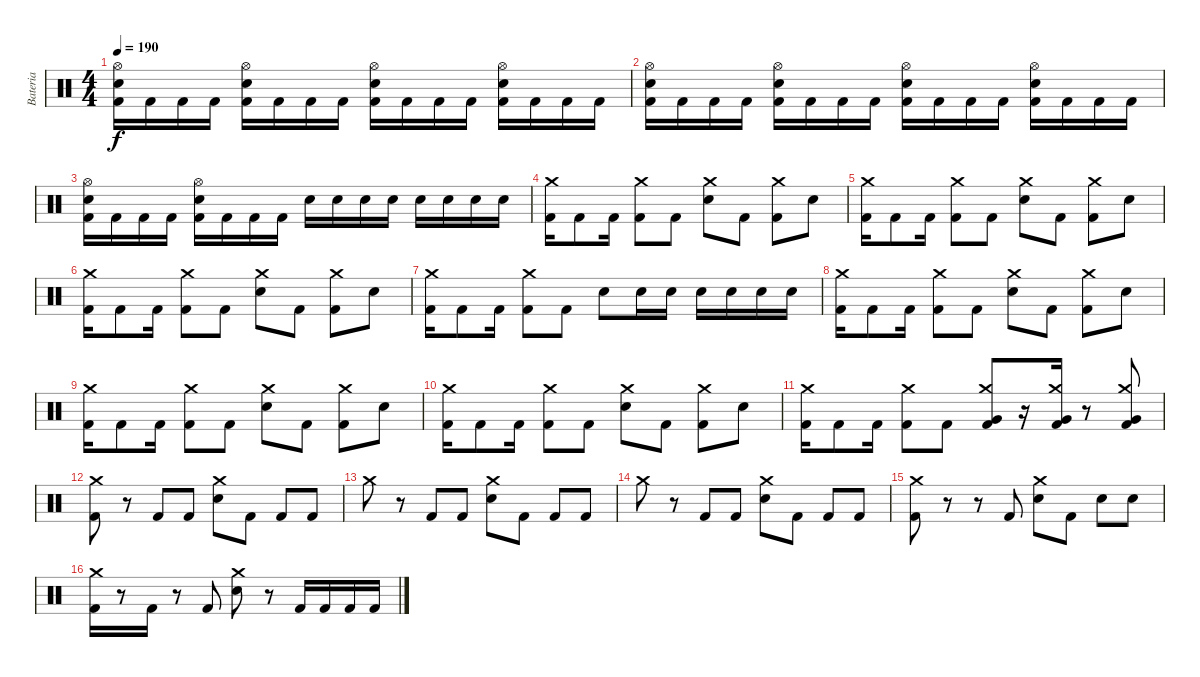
\track ("Bateria" "Bateria") {instrument percussion}
\staff {score}
\articulation defaults
\ts (4 4)
\tempo 190
\clef neutral
\ks c
("Hi-Hat (open)" "Electric Snare (hit)" "Kick (hit) 2").16{dy f} "Kick (hit) 2".16 "Kick (hit) 2".16 "Kick (hit) 2".16 ("Hi-Hat (open)" "Electric Snare (hit)" "Kick (hit) 2").16 "Kick (hit) 2".16 "Kick (hit) 2".16 "Kick (hit) 2".16 ("Hi-Hat (open)" "Electric Snare (hit)" "Kick (hit) 2").16 "Kick (hit) 2".16 "Kick (hit) 2".16 "Kick (hit) 2".16 ("Hi-Hat (open)" "Electric Snare (hit)" "Kick (hit) 2").16 "Kick (hit) 2".16 "Kick (hit) 2".16 "Kick (hit) 2".16 |
("Hi-Hat (open)" "Electric Snare (hit)" "Kick (hit) 2").16 "Kick (hit) 2".16 "Kick (hit) 2".16 "Kick (hit) 2".16 ("Hi-Hat (open)" "Electric Snare (hit)" "Kick (hit) 2").16 "Kick (hit) 2".16 "Kick (hit) 2".16 "Kick (hit) 2".16 ("Hi-Hat (open)" "Electric Snare (hit)" "Kick (hit) 2").16 "Kick (hit) 2".16 "Kick (hit) 2".16 "Kick (hit) 2".16 ("Hi-Hat (open)" "Electric Snare (hit)" "Kick (hit) 2").16 "Kick (hit) 2".16 "Kick (hit) 2".16 "Kick (hit) 2".16 |
("Hi-Hat (open)" "Electric Snare (hit)" "Kick (hit) 2").16 "Kick (hit) 2".16 "Kick (hit) 2".16 "Kick (hit) 2".16 ("Hi-Hat (open)" "Electric Snare (hit)" "Kick (hit) 2").16 "Kick (hit) 2".16 "Kick (hit) 2".16 "Kick (hit) 2".16 "Electric Snare (hit)".16 "Electric Snare (hit)".16 "Electric Snare (hit)".16 "Electric Snare (hit)".16 "Electric Snare (hit)".16 "Electric Snare (hit)".16 "Electric Snare (hit)".16 "Electric Snare (hit)".16 |
("Crash medium (hit)" "Kick (hit) 2").16 "Kick (hit) 2".8 "Kick (hit) 2".16 ("Crash medium (hit)" "Kick (hit) 2").8 "Kick (hit) 2".8 ("Crash medium (hit)" "Electric Snare (hit)").8 "Kick (hit) 2".8 ("Crash medium (hit)" "Kick (hit) 2").8 "Electric Snare (hit)".8 |
("Crash medium (hit)" "Kick (hit) 2").16 "Kick (hit) 2".8 "Kick (hit) 2".16 ("Crash medium (hit)" "Kick (hit) 2").8 "Kick (hit) 2".8 ("Crash medium (hit)" "Electric Snare (hit)").8 "Kick (hit) 2".8 ("Crash medium (hit)" "Kick (hit) 2").8 "Electric Snare (hit)".8 |
("Crash medium (hit)" "Kick (hit) 2").16 "Kick (hit) 2".8 "Kick (hit) 2".16 ("Crash medium (hit)" "Kick (hit) 2").8 "Kick (hit) 2".8 ("Crash medium (hit)" "Electric Snare (hit)").8 "Kick (hit) 2".8 ("Crash medium (hit)" "Kick (hit) 2").8 "Electric Snare (hit)".8 |
("Crash medium (hit)" "Kick (hit) 2").16 "Kick (hit) 2".8 "Kick (hit) 2".16 ("Crash medium (hit)" "Kick (hit) 2").8 "Kick (hit) 2".8 "Electric Snare (hit)".8 "Electric Snare (hit)".16 "Electric Snare (hit)".16 "Electric Snare (hit)".16 "Electric Snare (hit)".16 "Electric Snare (hit)".16 "Electric Snare (hit)".16 |
("Crash medium (hit)" "Kick (hit) 2").16 "Kick (hit) 2".8 "Kick (hit) 2".16 ("Crash medium (hit)" "Kick (hit) 2").8 "Kick (hit) 2".8 ("Crash medium (hit)" "Electric Snare (hit)").8 "Kick (hit) 2".8 ("Crash medium (hit)" "Kick (hit) 2").8 "Electric Snare (hit)".8 |
("Crash medium (hit)" "Kick (hit) 2").16 "Kick (hit) 2".8 "Kick (hit) 2".16 ("Crash medium (hit)" "Kick (hit) 2").8 "Kick (hit) 2".8 ("Crash medium (hit)" "Electric Snare (hit)").8 "Kick (hit) 2".8 ("Crash medium (hit)" "Kick (hit) 2").8 "Electric Snare (hit)".8 |
("Crash medium (hit)" "Kick (hit) 2").16 "Kick (hit) 2".8 "Kick (hit) 2".16 ("Crash medium (hit)" "Kick (hit) 2").8 "Kick (hit) 2".8 ("Crash medium (hit)" "Electric Snare (hit)").8 "Kick (hit) 2".8 ("Crash medium (hit)" "Kick (hit) 2").8 "Electric Snare (hit)".8 |
("Crash medium (hit)" "Kick (hit) 2").16 "Kick (hit) 2".8 "Kick (hit) 2".16 ("Crash medium (hit)" "Kick (hit) 2").8 "Kick (hit) 2".8 ("Crash medium (hit)" "Very Low Tom (hit)" "Kick (hit) 2").8 r.16 ("Crash medium (hit)" "Very Low Tom (hit)" "Kick (hit) 2").16 r.8 ("Crash medium (hit)" "Very Low Tom (hit)" "Kick (hit) 2").8 |
("Crash medium (hit)" "Kick (hit) 2").8 r.8 "Kick (hit) 2".8 "Kick (hit) 2".8 ("Crash medium (hit)" "Electric Snare (hit)").8 "Kick (hit) 2".8 "Kick (hit) 2".8 "Kick (hit) 2".8 |
"Crash medium (hit)".8 r.8 "Kick (hit) 2".8 "Kick (hit) 2".8 ("Crash medium (hit)" "Electric Snare (hit)").8 "Kick (hit) 2".8 "Kick (hit) 2".8 "Kick (hit) 2".8 |
"Crash medium (hit)".8 r.8 "Kick (hit) 2".8 "Kick (hit) 2".8 ("Crash medium (hit)" "Electric Snare (hit)").8 "Kick (hit) 2".8 "Kick (hit) 2".8 "Kick (hit) 2".8 |
("Crash medium (hit)" "Kick (hit) 2").8 r.8 r.8 "Kick (hit) 2".8 ("Crash medium (hit)" "Electric Snare (hit)").8 "Kick (hit) 2".8 "Electric Snare (hit)".8 "Electric Snare (hit)".8 |
("Crash medium (hit)" "Kick (hit) 2").16 r.8 "Kick (hit) 2".16 r.8 "Kick (hit) 2".8 ("Crash medium (hit)" "Electric Snare (hit)").8 r.8 "Kick (hit) 2".16 "Kick (hit) 2".16 "Kick (hit) 2".16 "Kick (hit) 2".16
